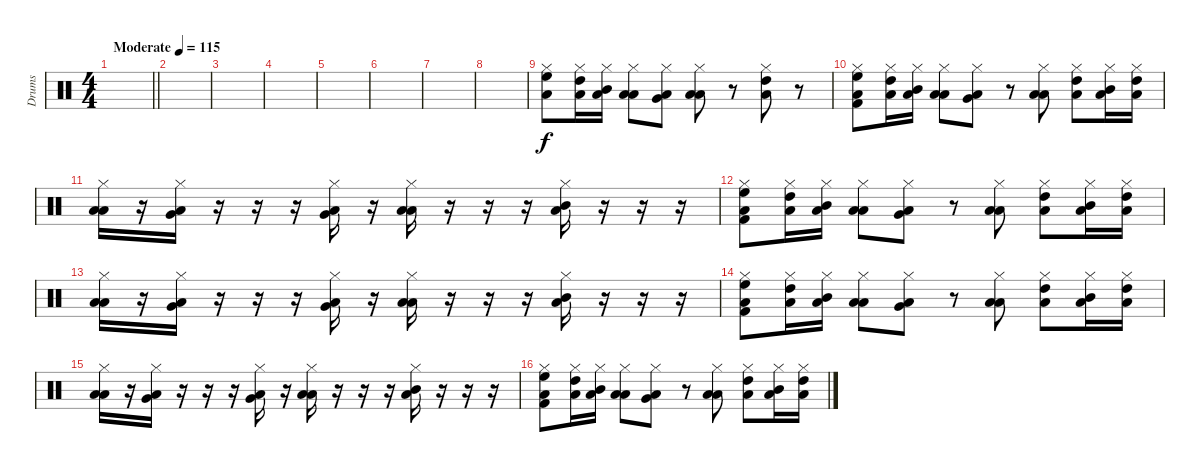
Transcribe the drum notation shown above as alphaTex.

\track ("Drums" "Drums") {instrument percussion}
\staff {score}
\articulation defaults
\ts (4 4)
\tempo (115 "Moderate")
\clef neutral
\barLineRight lightlight
\ks c
|
\section ("" "")
|
|
|
|
|
|
|
("Hi-Hat (closed)" "High Floor Tom (hit)" "Low Floor Tom (hit)").8 ("Hi-Hat (closed)" "High Tom (hit)" "Low Floor Tom (hit)").16 ("Hi-Hat (closed)" "Mid Tom (hit)" "Low Floor Tom (hit)").16 ("Hi-Hat (closed)" "Low Tom (hit)" "Low Floor Tom (hit)").8 ("Hi-Hat (closed)" "Very Low Tom (hit)" "Low Floor Tom (hit)").8 ("Hi-Hat (closed)" "Low Tom (hit)" "Low Floor Tom (hit)").8 r.8 ("Hi-Hat (closed)" "High Tom (hit)" "Low Floor Tom (hit)").8 r.8 |
("Hi-Hat (closed)" "High Floor Tom (hit)" "Low Floor Tom (hit)" "Kick (hit) 2").8 ("Hi-Hat (closed)" "High Tom (hit)" "Low Floor Tom (hit)").16 ("Hi-Hat (closed)" "Mid Tom (hit)" "Low Floor Tom (hit)").16 ("Hi-Hat (closed)" "Low Tom (hit)" "Low Floor Tom (hit)").8 ("Hi-Hat (closed)" "Very Low Tom (hit)" "Low Floor Tom (hit)").8 r.8 ("Hi-Hat (closed)" "Low Tom (hit)" "Low Floor Tom (hit)").8 ("Hi-Hat (closed)" "High Tom (hit)" "Low Floor Tom (hit)").8 ("Hi-Hat (closed)" "Mid Tom (hit)" "Low Floor Tom (hit)").16 ("Hi-Hat (closed)" "High Tom (hit)" "Low Floor Tom (hit)").16 |
("Hi-Hat (closed)" "Low Tom (hit)" "Low Floor Tom (hit)").16 r.16 ("Hi-Hat (closed)" "Very Low Tom (hit)" "Low Floor Tom (hit)").16 r.16 r.16 r.16 ("Hi-Hat (closed)" "Very Low Tom (hit)" "Low Floor Tom (hit)").16 r.16 ("Hi-Hat (closed)" "Low Tom (hit)" "Low Floor Tom (hit)").16 r.16 r.16 r.16 ("Hi-Hat (closed)" "Mid Tom (hit)" "Low Floor Tom (hit)").16 r.16 r.16 r.16 |
("Hi-Hat (closed)" "High Floor Tom (hit)" "Low Floor Tom (hit)" "Kick (hit) 2").8 ("Hi-Hat (closed)" "High Tom (hit)" "Low Floor Tom (hit)").16 ("Hi-Hat (closed)" "Mid Tom (hit)" "Low Floor Tom (hit)").16 ("Hi-Hat (closed)" "Low Tom (hit)" "Low Floor Tom (hit)").8 ("Hi-Hat (closed)" "Very Low Tom (hit)" "Low Floor Tom (hit)").8 r.8 ("Hi-Hat (closed)" "Low Tom (hit)" "Low Floor Tom (hit)").8 ("Hi-Hat (closed)" "High Tom (hit)" "Low Floor Tom (hit)").8 ("Hi-Hat (closed)" "Mid Tom (hit)" "Low Floor Tom (hit)").16 ("Hi-Hat (closed)" "High Tom (hit)" "Low Floor Tom (hit)").16 |
("Hi-Hat (closed)" "Low Tom (hit)" "Low Floor Tom (hit)").16 r.16 ("Hi-Hat (closed)" "Very Low Tom (hit)" "Low Floor Tom (hit)").16 r.16 r.16 r.16 ("Hi-Hat (closed)" "Very Low Tom (hit)" "Low Floor Tom (hit)").16 r.16 ("Hi-Hat (closed)" "Low Tom (hit)" "Low Floor Tom (hit)").16 r.16 r.16 r.16 ("Hi-Hat (closed)" "Mid Tom (hit)" "Low Floor Tom (hit)").16 r.16 r.16 r.16 |
("Hi-Hat (closed)" "High Floor Tom (hit)" "Low Floor Tom (hit)" "Kick (hit) 2").8 ("Hi-Hat (closed)" "High Tom (hit)" "Low Floor Tom (hit)").16 ("Hi-Hat (closed)" "Mid Tom (hit)" "Low Floor Tom (hit)").16 ("Hi-Hat (closed)" "Low Tom (hit)" "Low Floor Tom (hit)").8 ("Hi-Hat (closed)" "Very Low Tom (hit)" "Low Floor Tom (hit)").8 r.8 ("Hi-Hat (closed)" "Low Tom (hit)" "Low Floor Tom (hit)").8 ("Hi-Hat (closed)" "High Tom (hit)" "Low Floor Tom (hit)").8 ("Hi-Hat (closed)" "Mid Tom (hit)" "Low Floor Tom (hit)").16 ("Hi-Hat (closed)" "High Tom (hit)" "Low Floor Tom (hit)").16 |
("Hi-Hat (closed)" "Low Tom (hit)" "Low Floor Tom (hit)").16 r.16 ("Hi-Hat (closed)" "Very Low Tom (hit)" "Low Floor Tom (hit)").16 r.16 r.16 r.16 ("Hi-Hat (closed)" "Very Low Tom (hit)" "Low Floor Tom (hit)").16 r.16 ("Hi-Hat (closed)" "Low Tom (hit)" "Low Floor Tom (hit)").16 r.16 r.16 r.16 ("Hi-Hat (closed)" "Mid Tom (hit)" "Low Floor Tom (hit)").16 r.16 r.16 r.16 |
("Hi-Hat (closed)" "High Floor Tom (hit)" "Low Floor Tom (hit)" "Kick (hit) 2").8 ("Hi-Hat (closed)" "High Tom (hit)" "Low Floor Tom (hit)").16 ("Hi-Hat (closed)" "Mid Tom (hit)" "Low Floor Tom (hit)").16 ("Hi-Hat (closed)" "Low Tom (hit)" "Low Floor Tom (hit)").8 ("Hi-Hat (closed)" "Very Low Tom (hit)" "Low Floor Tom (hit)").8 r.8 ("Hi-Hat (closed)" "Low Tom (hit)" "Low Floor Tom (hit)").8 ("Hi-Hat (closed)" "High Tom (hit)" "Low Floor Tom (hit)").8 ("Hi-Hat (closed)" "Mid Tom (hit)" "Low Floor Tom (hit)").16 ("Hi-Hat (closed)" "High Tom (hit)" "Low Floor Tom (hit)").16
